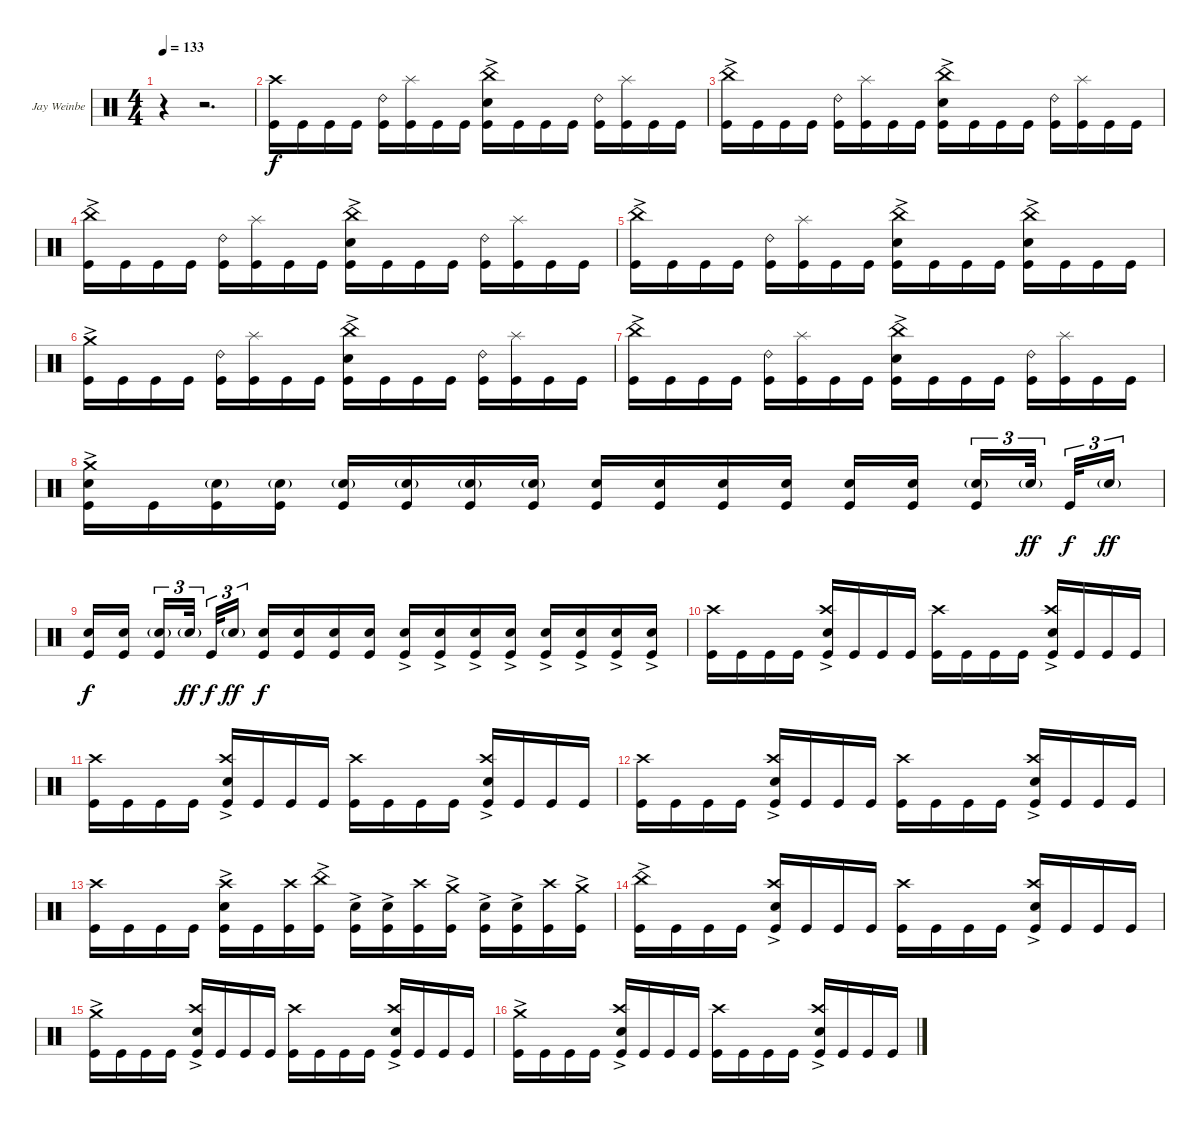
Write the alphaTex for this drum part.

\bracketExtendMode groupsimilarinstruments
\firstSystemTrackNameOrientation horizontal
\otherSystemsTrackNameOrientation horizontal
\track ("Jay Weinberg" "Jay Weinbe") {instrument percussion}
\staff {score}
\articulation defaults
\ts (4 4)
\tempo 133
\clef neutral
\ks c
r.4{dy f} r.2{d} |
("Kick (hit)" "Crash high (hit)").16 "Kick (hit)".16 "Kick (hit)".16 "Kick (hit)".16 ("Kick (hit)" "Ride (bell) 2").16 ("Kick (hit)" "Splash (hit)").16 "Kick (hit)".16 "Kick (hit)".16 ("Kick (hit)" "Snare (hit) 2"{ac} "China (hit)"{ac}).16 "Kick (hit)".16 "Kick (hit)".16 "Kick (hit)".16 ("Kick (hit)" "Ride (bell) 2").16 ("Kick (hit)" "Splash (hit)").16 "Kick (hit)".16 "Kick (hit)".16 |
("Kick (hit)" "China (hit)"{ac}).16 "Kick (hit)".16 "Kick (hit)".16 "Kick (hit)".16 ("Kick (hit)" "Ride (bell) 2").16 ("Kick (hit)" "Splash (hit)").16 "Kick (hit)".16 "Kick (hit)".16 ("Kick (hit)" "Snare (hit) 2"{ac} "China (hit)"{ac}).16 "Kick (hit)".16 "Kick (hit)".16 "Kick (hit)".16 ("Kick (hit)" "Ride (bell) 2").16 ("Kick (hit)" "Splash (hit)").16 "Kick (hit)".16 "Kick (hit)".16 |
("Kick (hit)" "China (hit)"{ac}).16 "Kick (hit)".16 "Kick (hit)".16 "Kick (hit)".16 ("Kick (hit)" "Ride (bell) 2").16 ("Kick (hit)" "Splash (hit)").16 "Kick (hit)".16 "Kick (hit)".16 ("Kick (hit)" "Snare (hit) 2"{ac} "China (hit)"{ac}).16 "Kick (hit)".16 "Kick (hit)".16 "Kick (hit)".16 ("Kick (hit)" "Ride (bell) 2").16 ("Kick (hit)" "Splash (hit)").16 "Kick (hit)".16 "Kick (hit)".16 |
("Kick (hit)" "China (hit)"{ac}).16 "Kick (hit)".16 "Kick (hit)".16 "Kick (hit)".16 ("Kick (hit)" "Ride (bell) 2").16 ("Kick (hit)" "Splash (hit)").16 "Kick (hit)".16 "Kick (hit)".16 ("Kick (hit)" "Snare (hit) 2"{ac} "China (hit)"{ac}).16 "Kick (hit)".16 "Kick (hit)".16 "Kick (hit)".16 ("Kick (hit)" "Snare (hit) 2"{ac} "China (hit)"{ac}).16 "Kick (hit)".16 "Kick (hit)".16 "Kick (hit)".16 |
("Kick (hit)" "Crash medium (hit)"{ac}).16 "Kick (hit)".16 "Kick (hit)".16 "Kick (hit)".16 ("Kick (hit)" "Ride (bell) 2").16 ("Kick (hit)" "Splash (hit)").16 "Kick (hit)".16 "Kick (hit)".16 ("Kick (hit)" "Snare (hit) 2"{ac} "China (hit)"{ac}).16 "Kick (hit)".16 "Kick (hit)".16 "Kick (hit)".16 ("Kick (hit)" "Ride (bell) 2").16 ("Kick (hit)" "Splash (hit)").16 "Kick (hit)".16 "Kick (hit)".16 |
("Kick (hit)" "China (hit)"{ac}).16 "Kick (hit)".16 "Kick (hit)".16 "Kick (hit)".16 ("Kick (hit)" "Ride (bell) 2").16 ("Kick (hit)" "Splash (hit)").16 "Kick (hit)".16 "Kick (hit)".16 ("Kick (hit)" "Snare (hit) 2"{ac} "China (hit)"{ac}).16 "Kick (hit)".16 "Kick (hit)".16 "Kick (hit)".16 ("Kick (hit)" "Ride (bell) 2").16 ("Kick (hit)" "Splash (hit)").16 "Kick (hit)".16 "Kick (hit)".16 |
("Snare (hit) 2"{ac} "Kick (hit)" "Crash medium (hit)"{ac}).16 "Kick (hit)".16 ("Snare (hit) 2"{g} "Kick (hit)").16 ("Snare (hit) 2"{g} "Kick (hit)").16 ("Snare (hit) 2"{g} "Kick (hit)").16 ("Snare (hit) 2"{g} "Kick (hit)").16 ("Snare (hit) 2"{g} "Kick (hit)").16 ("Snare (hit) 2"{g} "Kick (hit)").16 ("Snare (hit) 2" "Kick (hit)").16 ("Snare (hit) 2" "Kick (hit)").16 ("Snare (hit) 2" "Kick (hit)").16 ("Snare (hit) 2" "Kick (hit)").16 ("Snare (hit) 2" "Kick (hit)").16 ("Snare (hit) 2" "Kick (hit)").16 ("Snare (hit) 2"{g} "Kick (hit)").16{tu (3 2)} "Snare (hit) 2"{g}.32{tu (3 2) dy ff} "Kick (hit)".32{tu (3 2) dy f} "Snare (hit) 2"{g}.16{tu (3 2) dy ff} |
("Snare (hit) 2" "Kick (hit)").16{dy f} ("Snare (hit) 2" "Kick (hit)").16 ("Snare (hit) 2"{g} "Kick (hit)").16{tu (3 2)} "Snare (hit) 2"{g}.32{tu (3 2) dy ff} "Kick (hit)".32{tu (3 2) dy f} "Snare (hit) 2"{g}.16{tu (3 2) dy ff} ("Snare (hit) 2" "Kick (hit)").16{dy f} ("Snare (hit) 2" "Kick (hit)").16 ("Snare (hit) 2" "Kick (hit)").16 ("Snare (hit) 2" "Kick (hit)").16 ("Snare (hit) 2"{ac} "Kick (hit)").16 ("Snare (hit) 2"{ac} "Kick (hit)").16 ("Snare (hit) 2"{ac} "Kick (hit)").16 ("Snare (hit) 2"{ac} "Kick (hit)").16 ("Snare (hit) 2"{ac} "Kick (hit)").16 ("Snare (hit) 2"{ac} "Kick (hit)").16 ("Snare (hit) 2"{ac} "Kick (hit)").16 ("Snare (hit) 2"{ac} "Kick (hit)").16 |
("Kick (hit)" "Crash high (hit)").16 "Kick (hit)".16 "Kick (hit)".16 "Kick (hit)".16 ("Kick (hit)" "Crash high (hit)" "Snare (hit) 2"{ac}).16 "Kick (hit)".16 "Kick (hit)".16 "Kick (hit)".16 ("Kick (hit)" "Crash high (hit)").16 "Kick (hit)".16 "Kick (hit)".16 "Kick (hit)".16 ("Kick (hit)" "Crash high (hit)" "Snare (hit) 2"{ac}).16 "Kick (hit)".16 "Kick (hit)".16 "Kick (hit)".16 |
("Kick (hit)" "Crash high (hit)").16 "Kick (hit)".16 "Kick (hit)".16 "Kick (hit)".16 ("Kick (hit)" "Crash high (hit)" "Snare (hit) 2"{ac}).16 "Kick (hit)".16 "Kick (hit)".16 "Kick (hit)".16 ("Kick (hit)" "Crash high (hit)").16 "Kick (hit)".16 "Kick (hit)".16 "Kick (hit)".16 ("Kick (hit)" "Crash high (hit)" "Snare (hit) 2"{ac}).16 "Kick (hit)".16 "Kick (hit)".16 "Kick (hit)".16 |
("Kick (hit)" "Crash high (hit)").16 "Kick (hit)".16 "Kick (hit)".16 "Kick (hit)".16 ("Kick (hit)" "Crash high (hit)" "Snare (hit) 2"{ac}).16 "Kick (hit)".16 "Kick (hit)".16 "Kick (hit)".16 ("Kick (hit)" "Crash high (hit)").16 "Kick (hit)".16 "Kick (hit)".16 "Kick (hit)".16 ("Kick (hit)" "Crash high (hit)" "Snare (hit) 2"{ac}).16 "Kick (hit)".16 "Kick (hit)".16 "Kick (hit)".16 |
("Kick (hit)" "Crash high (hit)").16 "Kick (hit)".16 "Kick (hit)".16 "Kick (hit)".16 ("Kick (hit)" "Crash high (hit)" "Snare (hit) 2"{ac}).16 "Kick (hit)".16 ("Kick (hit)" "Crash high (hit)").16 ("Kick (hit)" "China (hit)"{ac}).16 ("Kick (hit)" "Snare (hit) 2"{ac}).16 ("Kick (hit)" "Snare (hit) 2"{ac}).16 ("Kick (hit)" "Crash high (hit)").16 ("Kick (hit)" "Crash medium (hit)"{ac}).16 ("Kick (hit)" "Snare (hit) 2"{ac}).16 ("Kick (hit)" "Snare (hit) 2"{ac}).16 ("Kick (hit)" "Crash high (hit)").16 ("Kick (hit)" "Crash medium (hit)"{ac}).16 |
("Kick (hit)" "China (hit)"{ac}).16 "Kick (hit)".16 "Kick (hit)".16 "Kick (hit)".16 ("Kick (hit)" "Crash high (hit)" "Snare (hit) 2"{ac}).16 "Kick (hit)".16 "Kick (hit)".16 "Kick (hit)".16 ("Kick (hit)" "Crash high (hit)").16 "Kick (hit)".16 "Kick (hit)".16 "Kick (hit)".16 ("Kick (hit)" "Crash high (hit)" "Snare (hit) 2"{ac}).16 "Kick (hit)".16 "Kick (hit)".16 "Kick (hit)".16 |
("Kick (hit)" "Crash medium (hit)"{ac}).16 "Kick (hit)".16 "Kick (hit)".16 "Kick (hit)".16 ("Kick (hit)" "Crash high (hit)" "Snare (hit) 2"{ac}).16 "Kick (hit)".16 "Kick (hit)".16 "Kick (hit)".16 ("Kick (hit)" "Crash high (hit)").16 "Kick (hit)".16 "Kick (hit)".16 "Kick (hit)".16 ("Kick (hit)" "Crash high (hit)" "Snare (hit) 2"{ac}).16 "Kick (hit)".16 "Kick (hit)".16 "Kick (hit)".16 |
("Kick (hit)" "Crash medium (hit)"{ac}).16 "Kick (hit)".16 "Kick (hit)".16 "Kick (hit)".16 ("Kick (hit)" "Crash high (hit)" "Snare (hit) 2"{ac}).16 "Kick (hit)".16 "Kick (hit)".16 "Kick (hit)".16 ("Kick (hit)" "Crash high (hit)").16 "Kick (hit)".16 "Kick (hit)".16 "Kick (hit)".16 ("Kick (hit)" "Crash high (hit)" "Snare (hit) 2"{ac}).16 "Kick (hit)".16 "Kick (hit)".16 "Kick (hit)".16
